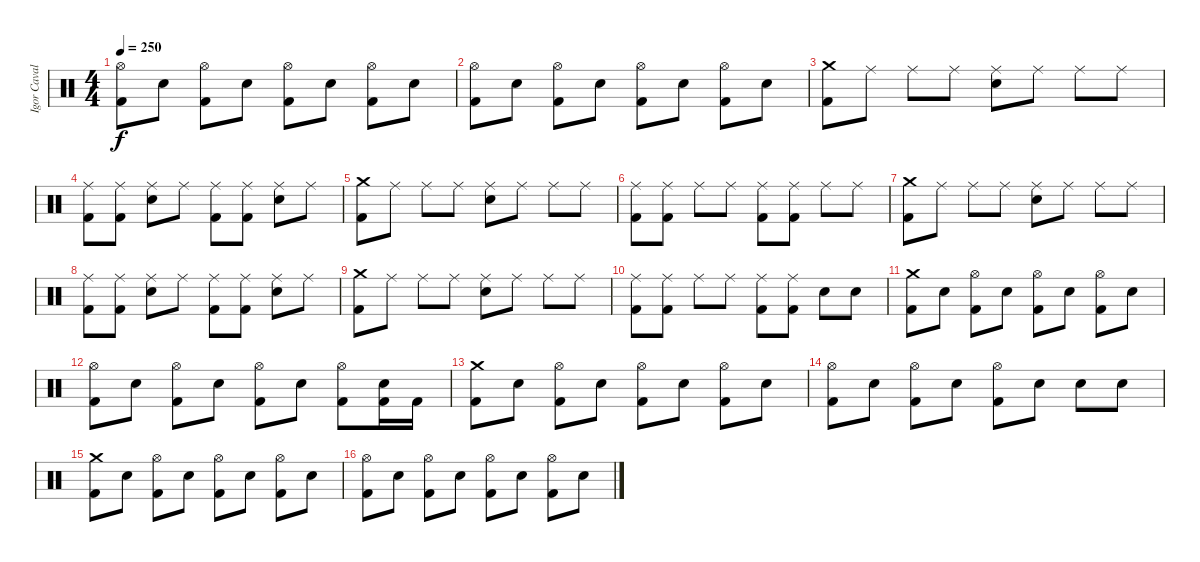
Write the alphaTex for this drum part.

\track ("Igor Cavalera" "Igor Caval") {instrument percussion}
\staff {score}
\articulation defaults
\ts (4 4)
\tempo 250
\clef neutral
\ks c
("Hi-Hat (open)" "Kick (hit) 2").8{dy f} "Electric Snare (hit)".8 ("Hi-Hat (open)" "Kick (hit) 2").8 "Electric Snare (hit)".8 ("Hi-Hat (open)" "Kick (hit) 2").8 "Electric Snare (hit)".8 ("Hi-Hat (open)" "Kick (hit) 2").8 "Electric Snare (hit)".8 |
("Hi-Hat (open)" "Kick (hit) 2").8 "Electric Snare (hit)".8 ("Hi-Hat (open)" "Kick (hit) 2").8 "Electric Snare (hit)".8 ("Hi-Hat (open)" "Kick (hit) 2").8 "Electric Snare (hit)".8 ("Hi-Hat (open)" "Kick (hit) 2").8 "Electric Snare (hit)".8 |
("Kick (hit) 2" "Crash medium (hit)").8 "Ride (middle)".8 "Ride (middle)".8 "Ride (middle)".8 ("Electric Snare (hit)" "Ride (middle)").8 "Ride (middle)".8 "Ride (middle)".8 "Ride (middle)".8 |
("Kick (hit) 2" "Ride (middle)").8 ("Kick (hit) 2" "Ride (middle)").8 ("Electric Snare (hit)" "Ride (middle)").8 "Ride (middle)".8 ("Kick (hit) 2" "Ride (middle)").8 ("Kick (hit) 2" "Ride (middle)").8 ("Electric Snare (hit)" "Ride (middle)").8 "Ride (middle)".8 |
("Kick (hit) 2" "Crash medium (hit)").8 "Ride (middle)".8 "Ride (middle)".8 "Ride (middle)".8 ("Electric Snare (hit)" "Ride (middle)").8 "Ride (middle)".8 "Ride (middle)".8 "Ride (middle)".8 |
("Kick (hit) 2" "Ride (middle)").8 ("Kick (hit) 2" "Ride (middle)").8 "Ride (middle)".8 "Ride (middle)".8 ("Kick (hit) 2" "Ride (middle)").8 ("Kick (hit) 2" "Ride (middle)").8 "Ride (middle)".8 "Ride (middle)".8 |
("Kick (hit) 2" "Crash medium (hit)").8 "Ride (middle)".8 "Ride (middle)".8 "Ride (middle)".8 ("Electric Snare (hit)" "Ride (middle)").8 "Ride (middle)".8 "Ride (middle)".8 "Ride (middle)".8 |
("Kick (hit) 2" "Ride (middle)").8 ("Kick (hit) 2" "Ride (middle)").8 ("Electric Snare (hit)" "Ride (middle)").8 "Ride (middle)".8 ("Kick (hit) 2" "Ride (middle)").8 ("Kick (hit) 2" "Ride (middle)").8 ("Electric Snare (hit)" "Ride (middle)").8 "Ride (middle)".8 |
("Kick (hit) 2" "Crash medium (hit)").8 "Ride (middle)".8 "Ride (middle)".8 "Ride (middle)".8 ("Electric Snare (hit)" "Ride (middle)").8 "Ride (middle)".8 "Ride (middle)".8 "Ride (middle)".8 |
("Kick (hit) 2" "Ride (middle)").8 ("Kick (hit) 2" "Ride (middle)").8 "Ride (middle)".8 "Ride (middle)".8 ("Kick (hit) 2" "Ride (middle)").8 ("Kick (hit) 2" "Ride (middle)").8 "Electric Snare (hit)".8 "Electric Snare (hit)".8 |
("Crash medium (hit)" "Kick (hit) 2").8 "Electric Snare (hit)".8 ("Hi-Hat (open)" "Kick (hit) 2").8 "Electric Snare (hit)".8 ("Hi-Hat (open)" "Kick (hit) 2").8 "Electric Snare (hit)".8 ("Hi-Hat (open)" "Kick (hit) 2").8 "Electric Snare (hit)".8 |
("Hi-Hat (open)" "Kick (hit) 2").8 "Electric Snare (hit)".8 ("Hi-Hat (open)" "Kick (hit) 2").8 "Electric Snare (hit)".8 ("Hi-Hat (open)" "Kick (hit) 2").8 "Electric Snare (hit)".8 ("Hi-Hat (open)" "Kick (hit) 2").8 ("Kick (hit) 2" "Electric Snare (hit)").16 "Kick (hit) 2".16 |
("Crash medium (hit)" "Kick (hit) 2").8 "Electric Snare (hit)".8 ("Hi-Hat (open)" "Kick (hit) 2").8 "Electric Snare (hit)".8 ("Hi-Hat (open)" "Kick (hit) 2").8 "Electric Snare (hit)".8 ("Hi-Hat (open)" "Kick (hit) 2").8 "Electric Snare (hit)".8 |
("Hi-Hat (open)" "Kick (hit) 2").8 "Electric Snare (hit)".8 ("Hi-Hat (open)" "Kick (hit) 2").8 "Electric Snare (hit)".8 ("Hi-Hat (open)" "Kick (hit) 2").8 "Electric Snare (hit)".8 "Electric Snare (hit)".8 "Electric Snare (hit)".8 |
("Crash medium (hit)" "Kick (hit) 2").8 "Electric Snare (hit)".8 ("Hi-Hat (open)" "Kick (hit) 2").8 "Electric Snare (hit)".8 ("Hi-Hat (open)" "Kick (hit) 2").8 "Electric Snare (hit)".8 ("Hi-Hat (open)" "Kick (hit) 2").8 "Electric Snare (hit)".8 |
("Hi-Hat (open)" "Kick (hit) 2").8 "Electric Snare (hit)".8 ("Hi-Hat (open)" "Kick (hit) 2").8 "Electric Snare (hit)".8 ("Hi-Hat (open)" "Kick (hit) 2").8 "Electric Snare (hit)".8 ("Hi-Hat (open)" "Kick (hit) 2").8 "Electric Snare (hit)".8
